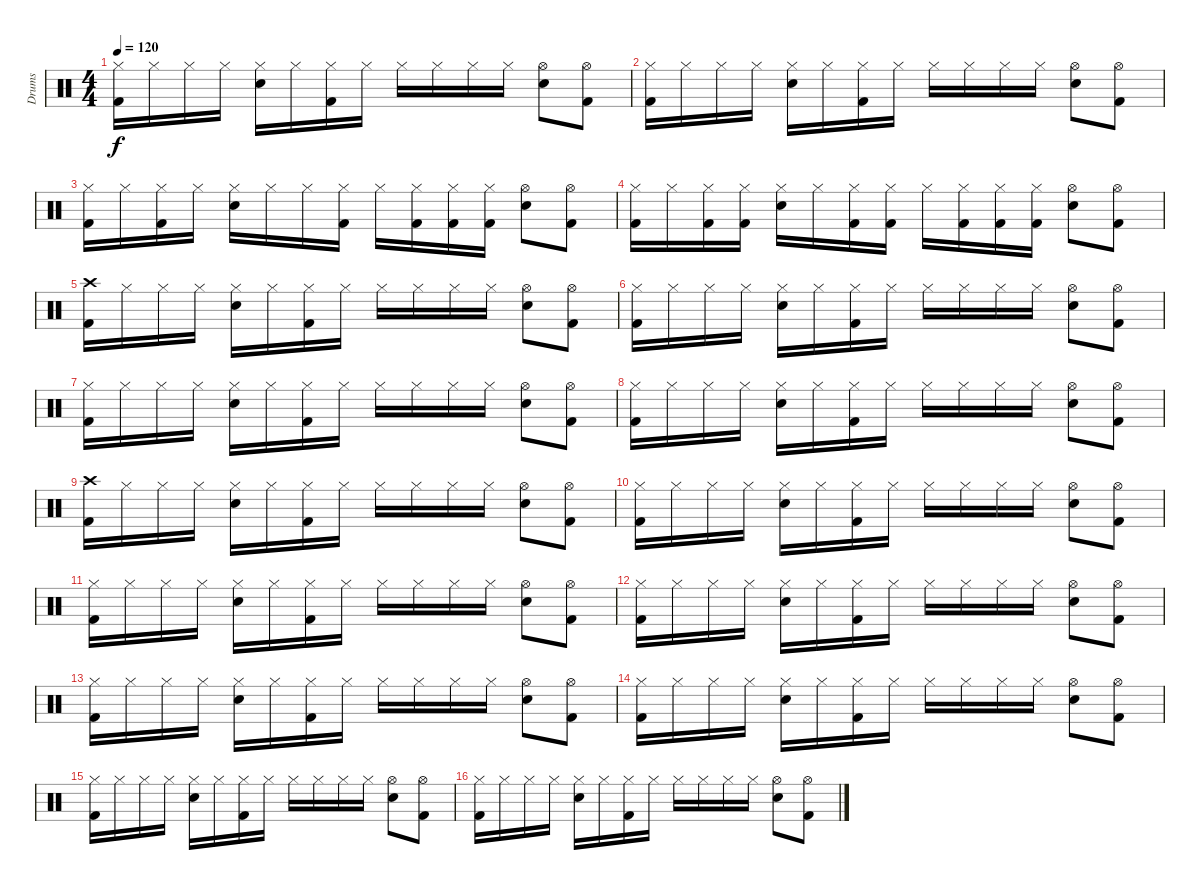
\track ("Drums" "Drums") {instrument percussion}
\staff {score}
\articulation defaults
\ts (4 4)
\tempo 120
\clef neutral
\ks c
("Hi-Hat (closed)" "Kick (hit) 2").16{dy f} "Hi-Hat (closed)".16 "Hi-Hat (closed)".16 "Hi-Hat (closed)".16 ("Hi-Hat (closed)" "Snare (hit) 2").16 "Hi-Hat (closed)".16 ("Hi-Hat (closed)" "Kick (hit) 2").16 "Hi-Hat (closed)".16 "Hi-Hat (closed)".16 "Hi-Hat (closed)".16 "Hi-Hat (closed)".16 "Hi-Hat (closed)".16 ("Hi-Hat (open)" "Snare (hit) 2").8 ("Hi-Hat (open)" "Kick (hit) 2").8 |
("Hi-Hat (closed)" "Kick (hit) 2").16 "Hi-Hat (closed)".16 "Hi-Hat (closed)".16 "Hi-Hat (closed)".16 ("Hi-Hat (closed)" "Snare (hit) 2").16 "Hi-Hat (closed)".16 ("Hi-Hat (closed)" "Kick (hit) 2").16 "Hi-Hat (closed)".16 "Hi-Hat (closed)".16 "Hi-Hat (closed)".16 "Hi-Hat (closed)".16 "Hi-Hat (closed)".16 ("Hi-Hat (open)" "Snare (hit) 2").8 ("Hi-Hat (open)" "Kick (hit) 2").8 |
("Hi-Hat (closed)" "Kick (hit) 2").16 "Hi-Hat (closed)".16 ("Hi-Hat (closed)" "Kick (hit) 2").16 "Hi-Hat (closed)".16 ("Hi-Hat (closed)" "Snare (hit) 2").16 "Hi-Hat (closed)".16 "Hi-Hat (closed)".16 ("Hi-Hat (closed)" "Kick (hit) 2").16 "Hi-Hat (closed)".16 ("Hi-Hat (closed)" "Kick (hit) 2").16 ("Hi-Hat (closed)" "Kick (hit) 2").16 ("Hi-Hat (closed)" "Kick (hit) 2").16 ("Hi-Hat (open)" "Snare (hit) 2").8 ("Hi-Hat (open)" "Kick (hit) 2").8 |
("Hi-Hat (closed)" "Kick (hit) 2").16 "Hi-Hat (closed)".16 ("Hi-Hat (closed)" "Kick (hit) 2").16 ("Hi-Hat (closed)" "Kick (hit) 2").16 ("Hi-Hat (closed)" "Snare (hit) 2").16 "Hi-Hat (closed)".16 ("Hi-Hat (closed)" "Kick (hit) 2").16 ("Hi-Hat (closed)" "Kick (hit) 2").16 "Hi-Hat (closed)".16 ("Hi-Hat (closed)" "Kick (hit) 2").16 ("Hi-Hat (closed)" "Kick (hit) 2").16 ("Hi-Hat (closed)" "Kick (hit) 2").16 ("Hi-Hat (open)" "Snare (hit) 2").8 ("Hi-Hat (open)" "Kick (hit) 2").8 |
("Crash high (hit)" "Kick (hit) 2").16 "Hi-Hat (closed)".16 "Hi-Hat (closed)".16 "Hi-Hat (closed)".16 ("Hi-Hat (closed)" "Snare (hit) 2").16 "Hi-Hat (closed)".16 ("Hi-Hat (closed)" "Kick (hit) 2").16 "Hi-Hat (closed)".16 "Hi-Hat (closed)".16 "Hi-Hat (closed)".16 "Hi-Hat (closed)".16 "Hi-Hat (closed)".16 ("Hi-Hat (open)" "Snare (hit) 2").8 ("Hi-Hat (open)" "Kick (hit) 2").8 |
("Hi-Hat (closed)" "Kick (hit) 2").16 "Hi-Hat (closed)".16 "Hi-Hat (closed)".16 "Hi-Hat (closed)".16 ("Hi-Hat (closed)" "Snare (hit) 2").16 "Hi-Hat (closed)".16 ("Hi-Hat (closed)" "Kick (hit) 2").16 "Hi-Hat (closed)".16 "Hi-Hat (closed)".16 "Hi-Hat (closed)".16 "Hi-Hat (closed)".16 "Hi-Hat (closed)".16 ("Hi-Hat (open)" "Snare (hit) 2").8 ("Hi-Hat (open)" "Kick (hit) 2").8 |
("Hi-Hat (closed)" "Kick (hit) 2").16 "Hi-Hat (closed)".16 "Hi-Hat (closed)".16 "Hi-Hat (closed)".16 ("Hi-Hat (closed)" "Snare (hit) 2").16 "Hi-Hat (closed)".16 ("Hi-Hat (closed)" "Kick (hit) 2").16 "Hi-Hat (closed)".16 "Hi-Hat (closed)".16 "Hi-Hat (closed)".16 "Hi-Hat (closed)".16 "Hi-Hat (closed)".16 ("Hi-Hat (open)" "Snare (hit) 2").8 ("Hi-Hat (open)" "Kick (hit) 2").8 |
("Hi-Hat (closed)" "Kick (hit) 2").16 "Hi-Hat (closed)".16 "Hi-Hat (closed)".16 "Hi-Hat (closed)".16 ("Hi-Hat (closed)" "Snare (hit) 2").16 "Hi-Hat (closed)".16 ("Hi-Hat (closed)" "Kick (hit) 2").16 "Hi-Hat (closed)".16 "Hi-Hat (closed)".16 "Hi-Hat (closed)".16 "Hi-Hat (closed)".16 "Hi-Hat (closed)".16 ("Hi-Hat (open)" "Snare (hit) 2").8 ("Hi-Hat (open)" "Kick (hit) 2").8 |
("Crash high (hit)" "Kick (hit) 2").16 "Hi-Hat (closed)".16 "Hi-Hat (closed)".16 "Hi-Hat (closed)".16 ("Hi-Hat (closed)" "Snare (hit) 2").16 "Hi-Hat (closed)".16 ("Hi-Hat (closed)" "Kick (hit) 2").16 "Hi-Hat (closed)".16 "Hi-Hat (closed)".16 "Hi-Hat (closed)".16 "Hi-Hat (closed)".16 "Hi-Hat (closed)".16 ("Hi-Hat (open)" "Snare (hit) 2").8 ("Hi-Hat (open)" "Kick (hit) 2").8 |
("Hi-Hat (closed)" "Kick (hit) 2").16 "Hi-Hat (closed)".16 "Hi-Hat (closed)".16 "Hi-Hat (closed)".16 ("Hi-Hat (closed)" "Snare (hit) 2").16 "Hi-Hat (closed)".16 ("Hi-Hat (closed)" "Kick (hit) 2").16 "Hi-Hat (closed)".16 "Hi-Hat (closed)".16 "Hi-Hat (closed)".16 "Hi-Hat (closed)".16 "Hi-Hat (closed)".16 ("Hi-Hat (open)" "Snare (hit) 2").8 ("Hi-Hat (open)" "Kick (hit) 2").8 |
("Hi-Hat (closed)" "Kick (hit) 2").16 "Hi-Hat (closed)".16 "Hi-Hat (closed)".16 "Hi-Hat (closed)".16 ("Hi-Hat (closed)" "Snare (hit) 2").16 "Hi-Hat (closed)".16 ("Hi-Hat (closed)" "Kick (hit) 2").16 "Hi-Hat (closed)".16 "Hi-Hat (closed)".16 "Hi-Hat (closed)".16 "Hi-Hat (closed)".16 "Hi-Hat (closed)".16 ("Hi-Hat (open)" "Snare (hit) 2").8 ("Hi-Hat (open)" "Kick (hit) 2").8 |
("Hi-Hat (closed)" "Kick (hit) 2").16 "Hi-Hat (closed)".16 "Hi-Hat (closed)".16 "Hi-Hat (closed)".16 ("Hi-Hat (closed)" "Snare (hit) 2").16 "Hi-Hat (closed)".16 ("Hi-Hat (closed)" "Kick (hit) 2").16 "Hi-Hat (closed)".16 "Hi-Hat (closed)".16 "Hi-Hat (closed)".16 "Hi-Hat (closed)".16 "Hi-Hat (closed)".16 ("Hi-Hat (open)" "Snare (hit) 2").8 ("Hi-Hat (open)" "Kick (hit) 2").8 |
("Hi-Hat (closed)" "Kick (hit) 2").16 "Hi-Hat (closed)".16 "Hi-Hat (closed)".16 "Hi-Hat (closed)".16 ("Hi-Hat (closed)" "Snare (hit) 2").16 "Hi-Hat (closed)".16 ("Hi-Hat (closed)" "Kick (hit) 2").16 "Hi-Hat (closed)".16 "Hi-Hat (closed)".16 "Hi-Hat (closed)".16 "Hi-Hat (closed)".16 "Hi-Hat (closed)".16 ("Hi-Hat (open)" "Snare (hit) 2").8 ("Hi-Hat (open)" "Kick (hit) 2").8 |
("Hi-Hat (closed)" "Kick (hit) 2").16 "Hi-Hat (closed)".16 "Hi-Hat (closed)".16 "Hi-Hat (closed)".16 ("Hi-Hat (closed)" "Snare (hit) 2").16 "Hi-Hat (closed)".16 ("Hi-Hat (closed)" "Kick (hit) 2").16 "Hi-Hat (closed)".16 "Hi-Hat (closed)".16 "Hi-Hat (closed)".16 "Hi-Hat (closed)".16 "Hi-Hat (closed)".16 ("Hi-Hat (open)" "Snare (hit) 2").8 ("Hi-Hat (open)" "Kick (hit) 2").8 |
("Hi-Hat (closed)" "Kick (hit) 2").16 "Hi-Hat (closed)".16 "Hi-Hat (closed)".16 "Hi-Hat (closed)".16 ("Hi-Hat (closed)" "Snare (hit) 2").16 "Hi-Hat (closed)".16 ("Hi-Hat (closed)" "Kick (hit) 2").16 "Hi-Hat (closed)".16 "Hi-Hat (closed)".16 "Hi-Hat (closed)".16 "Hi-Hat (closed)".16 "Hi-Hat (closed)".16 ("Hi-Hat (open)" "Snare (hit) 2").8 ("Hi-Hat (open)" "Kick (hit) 2").8 |
("Hi-Hat (closed)" "Kick (hit) 2").16 "Hi-Hat (closed)".16 "Hi-Hat (closed)".16 "Hi-Hat (closed)".16 ("Hi-Hat (closed)" "Snare (hit) 2").16 "Hi-Hat (closed)".16 ("Hi-Hat (closed)" "Kick (hit) 2").16 "Hi-Hat (closed)".16 "Hi-Hat (closed)".16 "Hi-Hat (closed)".16 "Hi-Hat (closed)".16 "Hi-Hat (closed)".16 ("Hi-Hat (open)" "Snare (hit) 2").8 ("Hi-Hat (open)" "Kick (hit) 2").8
